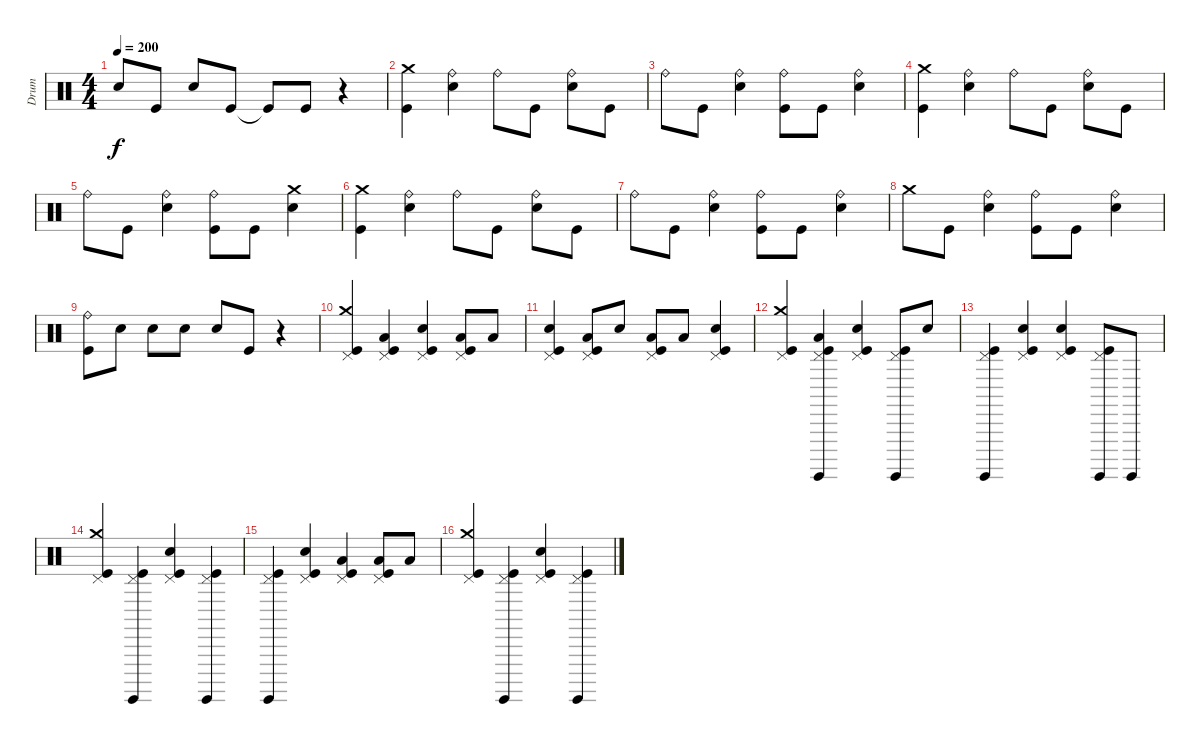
\track ("Drum" "Drum") {instrument percussion}
\staff {score}
\articulation defaults
\ts (4 4)
\tempo 200
\clef neutral
\ks c "Snare (hit) 2".8{dy f} "Kick (hit)".8 "Snare (hit) 2".8 "Kick (hit)".8 "Kick (hit)"{t}.8 "Kick (hit)".8
r.4 |
("Crash medium (hit)" "Kick (hit)").4 ("Ride (bell)" "Snare (hit) 2").4 "Ride (bell)".8 "Kick (hit)".8 ("Ride (bell)" "Snare (hit) 2").8 "Kick (hit)".8 |
"Ride (bell)".8 "Kick (hit)".8 ("Ride (bell)" "Snare (hit) 2").4 ("Ride (bell)" "Kick (hit)").8 "Kick (hit)".8 ("Ride (bell)" "Snare (hit) 2").4 |
("Crash medium (hit)" "Kick (hit)").4 ("Ride (bell)" "Snare (hit) 2").4 "Ride (bell)".8 "Kick (hit)".8 ("Ride (bell)" "Snare (hit) 2").8 "Kick (hit)".8 |
"Ride (bell)".8 "Kick (hit)".8 ("Ride (bell)" "Snare (hit) 2").4 ("Ride (bell)" "Kick (hit)").8 "Kick (hit)".8 ("Crash medium (hit)" "Snare (hit) 2").4 |
("Crash medium (hit)" "Kick (hit)").4 ("Ride (bell)" "Snare (hit) 2").4 "Ride (bell)".8 "Kick (hit)".8 ("Ride (bell)" "Snare (hit) 2").8 "Kick (hit)".8 |
"Ride (bell)".8 "Kick (hit)".8 ("Ride (bell)" "Snare (hit) 2").4 ("Ride (bell)" "Kick (hit)").8 "Kick (hit)".8 ("Ride (bell)" "Snare (hit) 2").4 |
"Crash medium (hit)".8 "Kick (hit)".8 ("Ride (bell)" "Snare (hit) 2").4 ("Ride (bell)" "Kick (hit)").8 "Kick (hit)".8 ("Ride (bell)" "Snare (hit) 2").4 |
("Ride (bell)" "Kick (hit)").8 "Snare (hit) 2".8 "Snare (hit) 2".8 "Snare (hit) 2".8 "Snare (hit) 2".8 "Kick (hit)".8 r.4 |
("Crash medium (hit)" "Pedal Hi-Hat (hit)" "Kick (hit)").4 ("Pedal Hi-Hat (hit)" "Low Tom (hit)" "Kick (hit)").4 ("Pedal Hi-Hat (hit)" "Snare (hit) 2" "Kick (hit)").4 ("Pedal Hi-Hat (hit)" "Low Tom (hit)" "Kick (hit)").8 "Low Tom (hit)".8 |
("Pedal Hi-Hat (hit)" "Snare (hit) 2" "Kick (hit)").4 ("Pedal Hi-Hat (hit)" "Low Tom (hit)" "Kick (hit)").8 "Snare (hit) 2".8 ("Pedal Hi-Hat (hit)" "Low Tom (hit)" "Kick (hit)").8 "Low Tom (hit)".8 ("Pedal Hi-Hat (hit)" "Snare (hit) 2" "Kick (hit)").4 |
("Crash medium (hit)" "Pedal Hi-Hat (hit)" "Kick (hit)").4 ("Pedal Hi-Hat (hit)" "Low Tom (hit)" "Surdo (hit)" "Kick (hit)").4 ("Pedal Hi-Hat (hit)" "Snare (hit) 2" "Kick (hit)").4 ("Pedal Hi-Hat (hit)" "Surdo (hit)" "Kick (hit)").8 "Snare (hit) 2".8 |
("Pedal Hi-Hat (hit)" "Surdo (hit)" "Kick (hit)").4 ("Pedal Hi-Hat (hit)" "Snare (hit) 2" "Kick (hit)").4 ("Pedal Hi-Hat (hit)" "Snare (hit) 2" "Kick (hit)").4 ("Pedal Hi-Hat (hit)" "Surdo (hit)" "Kick (hit)").8 "Surdo (hit)".8 |
("Crash medium (hit)" "Pedal Hi-Hat (hit)" "Kick (hit)").4 ("Pedal Hi-Hat (hit)" "Surdo (hit)" "Kick (hit)").4 ("Pedal Hi-Hat (hit)" "Snare (hit) 2" "Kick (hit)").4 ("Pedal Hi-Hat (hit)" "Surdo (hit)" "Kick (hit)").4 |
("Pedal Hi-Hat (hit)" "Surdo (hit)" "Kick (hit)").4 ("Pedal Hi-Hat (hit)" "Snare (hit) 2" "Kick (hit)").4 ("Pedal Hi-Hat (hit)" "Low Tom (hit)" "Kick (hit)").4 ("Pedal Hi-Hat (hit)" "Low Tom (hit)" "Kick (hit)").8 "Low Tom (hit)".8 |
("Crash medium (hit)" "Pedal Hi-Hat (hit)" "Kick (hit)").4 ("Pedal Hi-Hat (hit)" "Surdo (hit)" "Kick (hit)").4 ("Pedal Hi-Hat (hit)" "Snare (hit) 2" "Kick (hit)").4 ("Pedal Hi-Hat (hit)" "Surdo (hit)" "Kick (hit)").4
